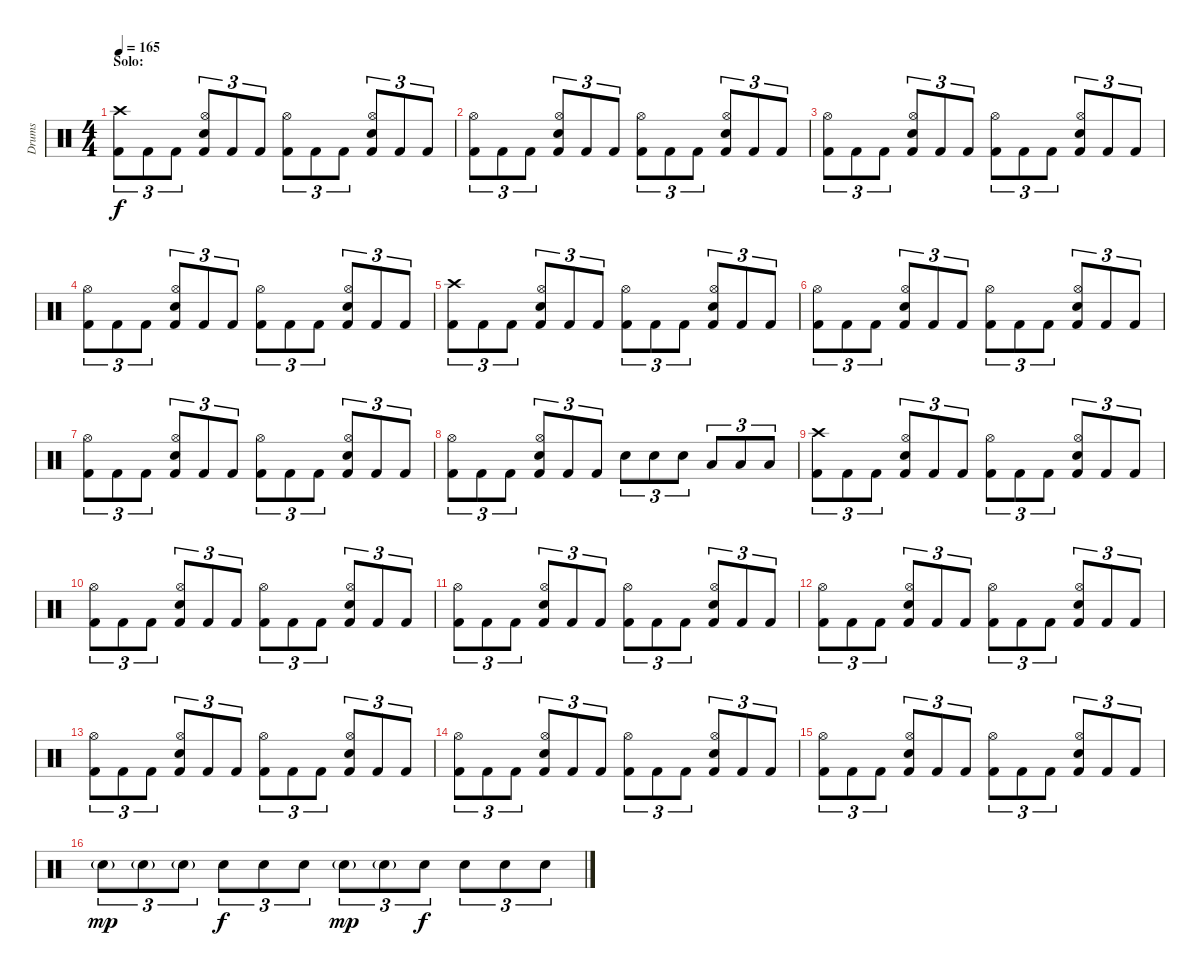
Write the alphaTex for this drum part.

\track ("Drums" "Drums") {instrument percussion}
\staff {score}
\articulation defaults
\ts (4 4)
\section ("" "Solo:")
\tempo 165
\clef neutral
\ks c
("Crash high (hit)" "Kick (hit) 2").8{tu (3 2) dy f} "Kick (hit) 2".8{tu (3 2)} "Kick (hit) 2".8{tu (3 2)} ("Hi-Hat (open)" "Electric Snare (hit)" "Kick (hit) 2").8{tu (3 2)} "Kick (hit) 2".8{tu (3 2)} "Kick (hit) 2".8{tu (3 2)} ("Hi-Hat (open)" "Kick (hit) 2").8{tu (3 2)} "Kick (hit) 2".8{tu (3 2)} "Kick (hit) 2".8{tu (3 2)} ("Hi-Hat (open)" "Electric Snare (hit)" "Kick (hit) 2").8{tu (3 2)} "Kick (hit) 2".8{tu (3 2)} "Kick (hit) 2".8{tu (3 2)} |
("Hi-Hat (open)" "Kick (hit) 2").8{tu (3 2)} "Kick (hit) 2".8{tu (3 2)} "Kick (hit) 2".8{tu (3 2)} ("Hi-Hat (open)" "Electric Snare (hit)" "Kick (hit) 2").8{tu (3 2)} "Kick (hit) 2".8{tu (3 2)} "Kick (hit) 2".8{tu (3 2)} ("Hi-Hat (open)" "Kick (hit) 2").8{tu (3 2)} "Kick (hit) 2".8{tu (3 2)} "Kick (hit) 2".8{tu (3 2)} ("Hi-Hat (open)" "Electric Snare (hit)" "Kick (hit) 2").8{tu (3 2)} "Kick (hit) 2".8{tu (3 2)} "Kick (hit) 2".8{tu (3 2)} |
("Hi-Hat (open)" "Kick (hit) 2").8{tu (3 2)} "Kick (hit) 2".8{tu (3 2)} "Kick (hit) 2".8{tu (3 2)} ("Hi-Hat (open)" "Electric Snare (hit)" "Kick (hit) 2").8{tu (3 2)} "Kick (hit) 2".8{tu (3 2)} "Kick (hit) 2".8{tu (3 2)} ("Hi-Hat (open)" "Kick (hit) 2").8{tu (3 2)} "Kick (hit) 2".8{tu (3 2)} "Kick (hit) 2".8{tu (3 2)} ("Hi-Hat (open)" "Electric Snare (hit)" "Kick (hit) 2").8{tu (3 2)} "Kick (hit) 2".8{tu (3 2)} "Kick (hit) 2".8{tu (3 2)} |
("Hi-Hat (open)" "Kick (hit) 2").8{tu (3 2)} "Kick (hit) 2".8{tu (3 2)} "Kick (hit) 2".8{tu (3 2)} ("Hi-Hat (open)" "Electric Snare (hit)" "Kick (hit) 2").8{tu (3 2)} "Kick (hit) 2".8{tu (3 2)} "Kick (hit) 2".8{tu (3 2)} ("Hi-Hat (open)" "Kick (hit) 2").8{tu (3 2)} "Kick (hit) 2".8{tu (3 2)} "Kick (hit) 2".8{tu (3 2)} ("Hi-Hat (open)" "Electric Snare (hit)" "Kick (hit) 2").8{tu (3 2)} "Kick (hit) 2".8{tu (3 2)} "Kick (hit) 2".8{tu (3 2)} |
("Crash high (hit)" "Kick (hit) 2").8{tu (3 2)} "Kick (hit) 2".8{tu (3 2)} "Kick (hit) 2".8{tu (3 2)} ("Hi-Hat (open)" "Electric Snare (hit)" "Kick (hit) 2").8{tu (3 2)} "Kick (hit) 2".8{tu (3 2)} "Kick (hit) 2".8{tu (3 2)} ("Hi-Hat (open)" "Kick (hit) 2").8{tu (3 2)} "Kick (hit) 2".8{tu (3 2)} "Kick (hit) 2".8{tu (3 2)} ("Hi-Hat (open)" "Electric Snare (hit)" "Kick (hit) 2").8{tu (3 2)} "Kick (hit) 2".8{tu (3 2)} "Kick (hit) 2".8{tu (3 2)} |
("Hi-Hat (open)" "Kick (hit) 2").8{tu (3 2)} "Kick (hit) 2".8{tu (3 2)} "Kick (hit) 2".8{tu (3 2)} ("Hi-Hat (open)" "Electric Snare (hit)" "Kick (hit) 2").8{tu (3 2)} "Kick (hit) 2".8{tu (3 2)} "Kick (hit) 2".8{tu (3 2)} ("Hi-Hat (open)" "Kick (hit) 2").8{tu (3 2)} "Kick (hit) 2".8{tu (3 2)} "Kick (hit) 2".8{tu (3 2)} ("Hi-Hat (open)" "Electric Snare (hit)" "Kick (hit) 2").8{tu (3 2)} "Kick (hit) 2".8{tu (3 2)} "Kick (hit) 2".8{tu (3 2)} |
("Hi-Hat (open)" "Kick (hit) 2").8{tu (3 2)} "Kick (hit) 2".8{tu (3 2)} "Kick (hit) 2".8{tu (3 2)} ("Hi-Hat (open)" "Electric Snare (hit)" "Kick (hit) 2").8{tu (3 2)} "Kick (hit) 2".8{tu (3 2)} "Kick (hit) 2".8{tu (3 2)} ("Hi-Hat (open)" "Kick (hit) 2").8{tu (3 2)} "Kick (hit) 2".8{tu (3 2)} "Kick (hit) 2".8{tu (3 2)} ("Hi-Hat (open)" "Electric Snare (hit)" "Kick (hit) 2").8{tu (3 2)} "Kick (hit) 2".8{tu (3 2)} "Kick (hit) 2".8{tu (3 2)} |
("Hi-Hat (open)" "Kick (hit) 2").8{tu (3 2)} "Kick (hit) 2".8{tu (3 2)} "Kick (hit) 2".8{tu (3 2)} ("Hi-Hat (open)" "Electric Snare (hit)" "Kick (hit) 2").8{tu (3 2)} "Kick (hit) 2".8{tu (3 2)} "Kick (hit) 2".8{tu (3 2)} "Electric Snare (hit)".8{tu (3 2)} "Electric Snare (hit)".8{tu (3 2)} "Electric Snare (hit)".8{tu (3 2)} "Low Tom (hit)".8{tu (3 2)} "Low Tom (hit)".8{tu (3 2)} "Low Tom (hit)".8{tu (3 2)} |
("Crash high (hit)" "Kick (hit) 2").8{tu (3 2)} "Kick (hit) 2".8{tu (3 2)} "Kick (hit) 2".8{tu (3 2)} ("Hi-Hat (open)" "Electric Snare (hit)" "Kick (hit) 2").8{tu (3 2)} "Kick (hit) 2".8{tu (3 2)} "Kick (hit) 2".8{tu (3 2)} ("Hi-Hat (open)" "Kick (hit) 2").8{tu (3 2)} "Kick (hit) 2".8{tu (3 2)} "Kick (hit) 2".8{tu (3 2)} ("Hi-Hat (open)" "Electric Snare (hit)" "Kick (hit) 2").8{tu (3 2)} "Kick (hit) 2".8{tu (3 2)} "Kick (hit) 2".8{tu (3 2)} |
("Hi-Hat (open)" "Kick (hit) 2").8{tu (3 2)} "Kick (hit) 2".8{tu (3 2)} "Kick (hit) 2".8{tu (3 2)} ("Hi-Hat (open)" "Electric Snare (hit)" "Kick (hit) 2").8{tu (3 2)} "Kick (hit) 2".8{tu (3 2)} "Kick (hit) 2".8{tu (3 2)} ("Hi-Hat (open)" "Kick (hit) 2").8{tu (3 2)} "Kick (hit) 2".8{tu (3 2)} "Kick (hit) 2".8{tu (3 2)} ("Hi-Hat (open)" "Electric Snare (hit)" "Kick (hit) 2").8{tu (3 2)} "Kick (hit) 2".8{tu (3 2)} "Kick (hit) 2".8{tu (3 2)} |
("Hi-Hat (open)" "Kick (hit) 2").8{tu (3 2)} "Kick (hit) 2".8{tu (3 2)} "Kick (hit) 2".8{tu (3 2)} ("Hi-Hat (open)" "Electric Snare (hit)" "Kick (hit) 2").8{tu (3 2)} "Kick (hit) 2".8{tu (3 2)} "Kick (hit) 2".8{tu (3 2)} ("Hi-Hat (open)" "Kick (hit) 2").8{tu (3 2)} "Kick (hit) 2".8{tu (3 2)} "Kick (hit) 2".8{tu (3 2)} ("Hi-Hat (open)" "Electric Snare (hit)" "Kick (hit) 2").8{tu (3 2)} "Kick (hit) 2".8{tu (3 2)} "Kick (hit) 2".8{tu (3 2)} |
("Hi-Hat (open)" "Kick (hit) 2").8{tu (3 2)} "Kick (hit) 2".8{tu (3 2)} "Kick (hit) 2".8{tu (3 2)} ("Hi-Hat (open)" "Electric Snare (hit)" "Kick (hit) 2").8{tu (3 2)} "Kick (hit) 2".8{tu (3 2)} "Kick (hit) 2".8{tu (3 2)} ("Hi-Hat (open)" "Kick (hit) 2").8{tu (3 2)} "Kick (hit) 2".8{tu (3 2)} "Kick (hit) 2".8{tu (3 2)} ("Hi-Hat (open)" "Electric Snare (hit)" "Kick (hit) 2").8{tu (3 2)} "Kick (hit) 2".8{tu (3 2)} "Kick (hit) 2".8{tu (3 2)} |
("Hi-Hat (open)" "Kick (hit) 2").8{tu (3 2)} "Kick (hit) 2".8{tu (3 2)} "Kick (hit) 2".8{tu (3 2)} ("Hi-Hat (open)" "Electric Snare (hit)" "Kick (hit) 2").8{tu (3 2)} "Kick (hit) 2".8{tu (3 2)} "Kick (hit) 2".8{tu (3 2)} ("Hi-Hat (open)" "Kick (hit) 2").8{tu (3 2)} "Kick (hit) 2".8{tu (3 2)} "Kick (hit) 2".8{tu (3 2)} ("Hi-Hat (open)" "Electric Snare (hit)" "Kick (hit) 2").8{tu (3 2)} "Kick (hit) 2".8{tu (3 2)} "Kick (hit) 2".8{tu (3 2)} |
("Hi-Hat (open)" "Kick (hit) 2").8{tu (3 2)} "Kick (hit) 2".8{tu (3 2)} "Kick (hit) 2".8{tu (3 2)} ("Hi-Hat (open)" "Electric Snare (hit)" "Kick (hit) 2").8{tu (3 2)} "Kick (hit) 2".8{tu (3 2)} "Kick (hit) 2".8{tu (3 2)} ("Hi-Hat (open)" "Kick (hit) 2").8{tu (3 2)} "Kick (hit) 2".8{tu (3 2)} "Kick (hit) 2".8{tu (3 2)} ("Hi-Hat (open)" "Electric Snare (hit)" "Kick (hit) 2").8{tu (3 2)} "Kick (hit) 2".8{tu (3 2)} "Kick (hit) 2".8{tu (3 2)} |
("Hi-Hat (open)" "Kick (hit) 2").8{tu (3 2)} "Kick (hit) 2".8{tu (3 2)} "Kick (hit) 2".8{tu (3 2)} ("Hi-Hat (open)" "Electric Snare (hit)" "Kick (hit) 2").8{tu (3 2)} "Kick (hit) 2".8{tu (3 2)} "Kick (hit) 2".8{tu (3 2)} ("Hi-Hat (open)" "Kick (hit) 2").8{tu (3 2)} "Kick (hit) 2".8{tu (3 2)} "Kick (hit) 2".8{tu (3 2)} ("Hi-Hat (open)" "Electric Snare (hit)" "Kick (hit) 2").8{tu (3 2)} "Kick (hit) 2".8{tu (3 2)} "Kick (hit) 2".8{tu (3 2)} |
"Electric Snare (hit)"{g}.8{tu (3 2) dy mp} "Electric Snare (hit)"{g}.8{tu (3 2)} "Electric Snare (hit)"{g}.8{tu (3 2)} "Electric Snare (hit)".8{tu (3 2) dy f} "Electric Snare (hit)".8{tu (3 2)} "Electric Snare (hit)".8{tu (3 2)} "Electric Snare (hit)"{g}.8{tu (3 2) dy mp} "Electric Snare (hit)"{g}.8{tu (3 2)} "Electric Snare (hit)".8{tu (3 2) dy f} "Electric Snare (hit)".8{tu (3 2)} "Electric Snare (hit)".8{tu (3 2)} "Electric Snare (hit)".8{tu (3 2)}
